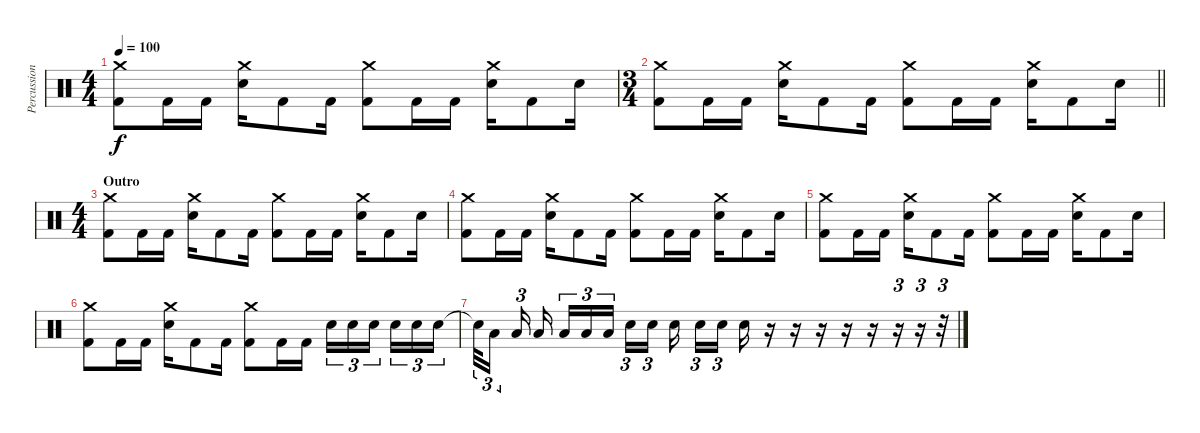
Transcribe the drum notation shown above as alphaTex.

\track ("Percussion" "Percussion") {instrument percussion}
\staff {score}
\articulation defaults
\ts (4 4)
\tempo 100
\clef neutral
\ks c
("Kick (hit) 2" "Crash medium (hit)").8{dy f} "Kick (hit) 2".16 "Kick (hit) 2".16 ("Snare (hit) 2" "Crash medium (hit)").16 "Kick (hit) 2".8 "Kick (hit) 2".16 ("Kick (hit) 2" "Crash medium (hit)").8 "Kick (hit) 2".16 "Kick (hit) 2".16 ("Snare (hit) 2" "Crash medium (hit)").16 "Kick (hit) 2".8 "Snare (hit) 2".16 |
\ts (3 4)
\barLineRight lightlight
("Kick (hit) 2" "Crash medium (hit)").8 "Kick (hit) 2".16 "Kick (hit) 2".16 ("Snare (hit) 2" "Crash medium (hit)").16 "Kick (hit) 2".8 "Kick (hit) 2".16 ("Kick (hit) 2" "Crash medium (hit)").8 "Kick (hit) 2".16 "Kick (hit) 2".16 ("Snare (hit) 2" "Crash medium (hit)").16 "Kick (hit) 2".8 "Snare (hit) 2".16 |
\ts (4 4)
\section ("" "Outro")
("Kick (hit) 2" "Crash medium (hit)").8 "Kick (hit) 2".16 "Kick (hit) 2".16 ("Snare (hit) 2" "Crash medium (hit)").16 "Kick (hit) 2".8 "Kick (hit) 2".16 ("Kick (hit) 2" "Crash medium (hit)").8 "Kick (hit) 2".16 "Kick (hit) 2".16 ("Snare (hit) 2" "Crash medium (hit)").16 "Kick (hit) 2".8 "Snare (hit) 2".16 |
("Kick (hit) 2" "Crash medium (hit)").8 "Kick (hit) 2".16 "Kick (hit) 2".16 ("Snare (hit) 2" "Crash medium (hit)").16 "Kick (hit) 2".8 "Kick (hit) 2".16 ("Kick (hit) 2" "Crash medium (hit)").8 "Kick (hit) 2".16 "Kick (hit) 2".16 ("Snare (hit) 2" "Crash medium (hit)").16 "Kick (hit) 2".8 "Snare (hit) 2".16 |
("Kick (hit) 2" "Crash medium (hit)").8 "Kick (hit) 2".16 "Kick (hit) 2".16 ("Snare (hit) 2" "Crash medium (hit)").16 "Kick (hit) 2".8 "Kick (hit) 2".16 ("Kick (hit) 2" "Crash medium (hit)").8 "Kick (hit) 2".16 "Kick (hit) 2".16 ("Snare (hit) 2" "Crash medium (hit)").16 "Kick (hit) 2".8 "Snare (hit) 2".16 |
("Kick (hit) 2" "Crash medium (hit)").8 "Kick (hit) 2".16 "Kick (hit) 2".16 ("Snare (hit) 2" "Crash medium (hit)").16 "Kick (hit) 2".8 "Kick (hit) 2".16 ("Kick (hit) 2" "Crash medium (hit)").8 "Kick (hit) 2".16 "Kick (hit) 2".16 "Snare (hit) 2".16{tu (3 2)} "Snare (hit) 2".16{tu (3 2)} "Snare (hit) 2".16{tu (3 2) beam splitsecondary} "Snare (hit) 2".16{tu (3 2)} "Snare (hit) 2".16{tu (3 2)} "Snare (hit) 2".16{tu (3 2)} |
"Snare (hit)"{t}.32{tu (3 2)} "Low Floor Tom (hit)".16{tu (3 2) beam splitsecondary} "Low Floor Tom (hit)".16{tu (3 2) beam splitsecondary} "Low Floor Tom (hit)".16{beam splitsecondary} "Low Floor Tom (hit)".16{tu (3 2)} "Low Floor Tom (hit)".16{tu (3 2)} "Low Floor Tom (hit)".16{tu (3 2) beam splitsecondary} "Snare (hit) 2".16{tu (3 2)} "Snare (hit) 2".16{tu (3 2) beam splitsecondary} "Snare (hit) 2".16{beam splitsecondary} "Snare (hit) 2".16{tu (3 2)} "Snare (hit) 2".16{tu (3 2)} "Snare (hit) 2".16 r.16 r.16 r.16 r.16 r.16 r.16{tu (3 2)} r.16{tu (3 2)} r.32{tu (3 2)}
